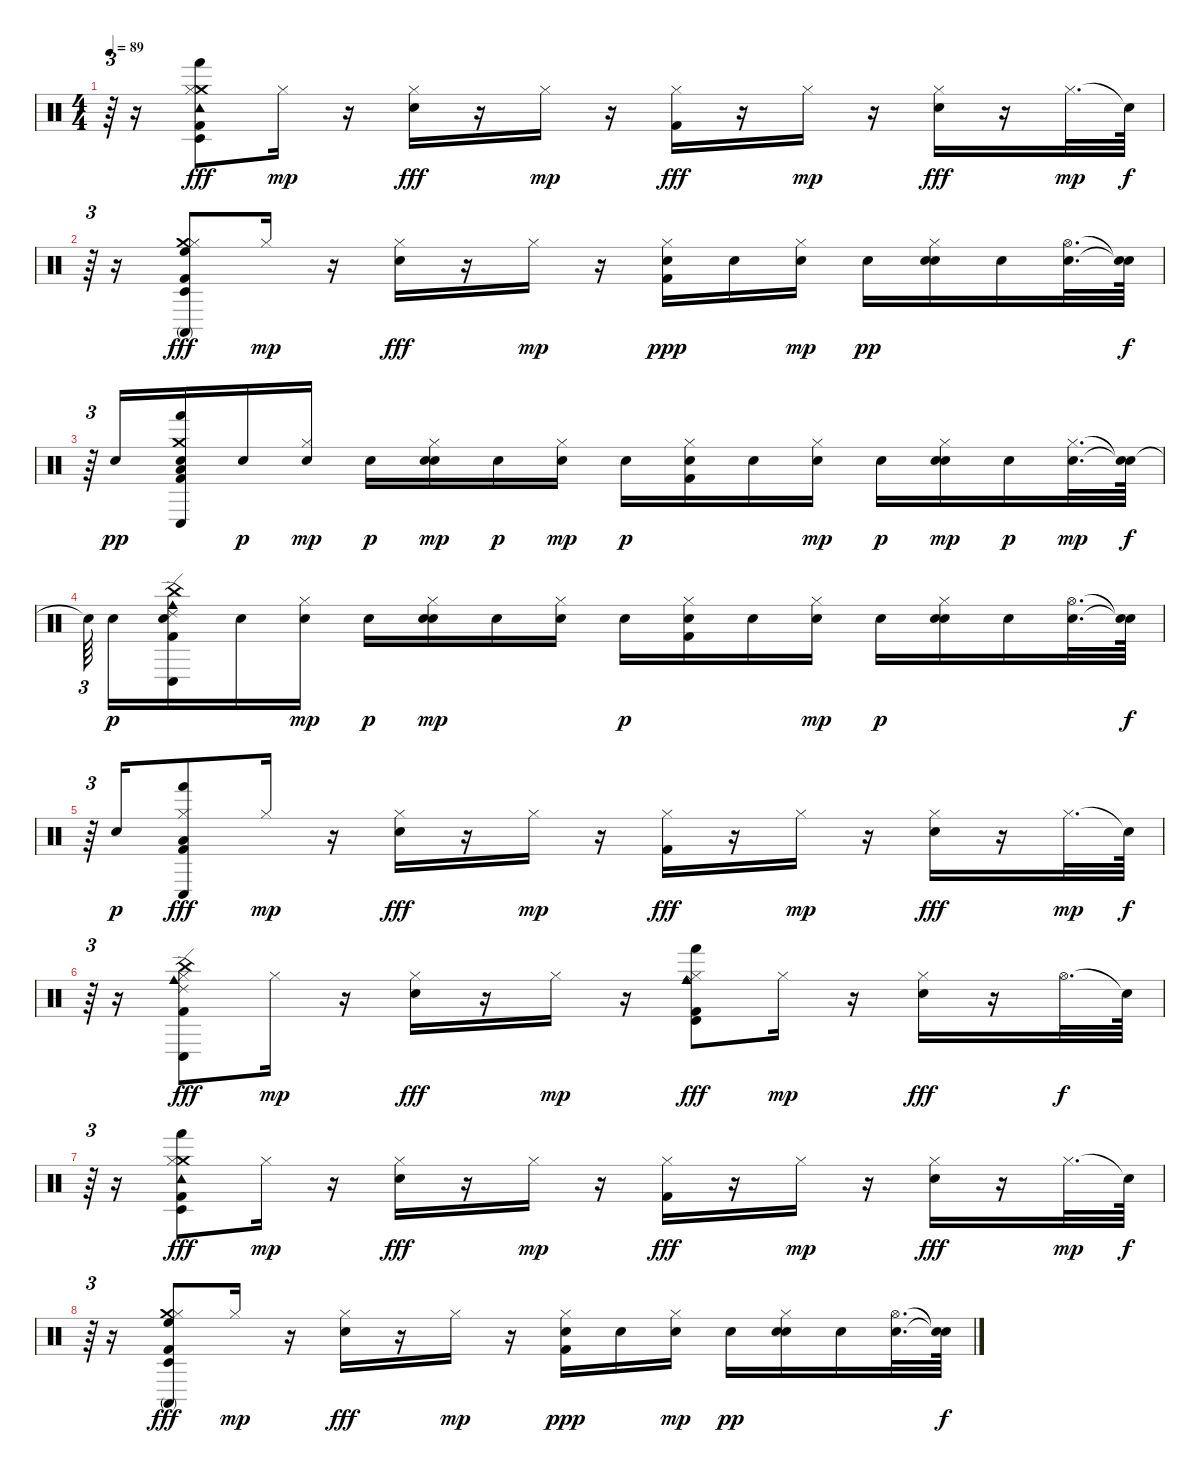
\track "" {instrument percussion}
\staff {score}
\articulation defaults
\ts (4 4)
\tempo 89
\clef neutral
\ks c
r.64{tu (3 2) dy f} r.16 ("Tambourine (hit)" "Crash medium (hit)" "Hand (hit)" "Timbale low (hit)" "Kick (hit) 2" "Hi-Hat (closed)").8{dy fff} "Hi-Hat (closed)".16{dy mp} r.16 ("Snare (hit) 2" "Hi-Hat (closed)").16{dy fff} r.16 "Hi-Hat (closed)".16{dy mp} r.16 ("Kick (hit) 2" "Hi-Hat (closed)").16{dy fff} r.16 "Hi-Hat (closed)".16{dy mp} r.16 ("Snare (hit) 2" "Hi-Hat (closed)").16{dy fff} r.16 "Hi-Hat (closed)".32{d dy mp} "Snare (hit)"{t}.64{dy f} |
r.64{tu (3 2)} r.16 ("High Floor Tom (hit)" "Crash medium (hit)" "Conga high (mute)" "Timbale low (hit)" "Kick (hit) 2" "Hi-Hat (closed)").8{dy fff} "Hi-Hat (closed)".16{dy mp} r.16 ("Snare (hit) 2" "Hi-Hat (closed)").16{dy fff} r.16 "Hi-Hat (closed)".16{dy mp} r.16 ("Kick (hit) 2" "Electric Snare (hit)" "Hi-Hat (closed)").16{dy ppp} "Electric Snare (hit)".16 ("Electric Snare (hit)" "Hi-Hat (closed)").16{dy mp} "Electric Snare (hit)".16{dy pp} ("Snare (hit) 2" "Electric Snare (hit)" "Hi-Hat (closed)").16 "Electric Snare (hit)".16 ("Electric Snare (hit)" "Hi-Hat (open)").32{d} ("Snare (hit)"{t} "Snare (hit)"{t}).64{dy f} |
r.64{tu (3 2)} "Electric Snare (hit)".16{dy pp} ("Low Tom (hit)" "Crash medium (hit)" "Hand (hit)" "Conga low (hit)" "Kick (hit) 2" "Electric Snare (hit)").16 "Electric Snare (hit)".16{dy p} ("Electric Snare (hit)" "Hi-Hat (closed)").16{dy mp} "Electric Snare (hit)".16{dy p} ("Snare (hit) 2" "Electric Snare (hit)" "Hi-Hat (closed)").16{dy mp} "Electric Snare (hit)".16{dy p} ("Electric Snare (hit)" "Hi-Hat (closed)").16{dy mp} "Electric Snare (hit)".16{dy p} ("Kick (hit) 2" "Electric Snare (hit)" "Hi-Hat (closed)").16 "Electric Snare (hit)".16 ("Electric Snare (hit)" "Hi-Hat (closed)").16{dy mp} "Electric Snare (hit)".16{dy p} ("Snare (hit) 2" "Electric Snare (hit)" "Hi-Hat (closed)").16{dy mp} "Electric Snare (hit)".16{dy p} ("Electric Snare (hit)" "Hi-Hat (closed)").32{d dy mp} ("Snare (hit)"{t} "Snare (hit)"{t}).64{dy f} |
"Snare (hit)"{t}.64{tu (3 2) beam splitsecondary} "Electric Snare (hit)".16{dy p} ("China (hit)" "Cowbell medium (hit)" "Ride (edge) 2" "Conga low (hit)" "Kick (hit) 2" "Electric Snare (hit)").16 "Electric Snare (hit)".16 ("Electric Snare (hit)" "Hi-Hat (closed)").16{dy mp} "Electric Snare (hit)".16{dy p} ("Snare (hit) 2" "Electric Snare (hit)" "Hi-Hat (closed)").16{dy mp} "Electric Snare (hit)".16 ("Electric Snare (hit)" "Hi-Hat (closed)").16 "Electric Snare (hit)".16{dy p} ("Kick (hit) 2" "Electric Snare (hit)" "Hi-Hat (closed)").16 "Electric Snare (hit)".16 ("Electric Snare (hit)" "Hi-Hat (closed)").16{dy mp} "Electric Snare (hit)".16{dy p} ("Snare (hit) 2" "Electric Snare (hit)" "Hi-Hat (closed)").16 "Electric Snare (hit)".16 ("Electric Snare (hit)" "Hi-Hat (open)").32{d} ("Snare (hit)"{t} "Snare (hit)"{t}).64{dy f} |
r.64{tu (3 2)} "Electric Snare (hit)".16{dy p} ("Low Tom (hit)" "Hand (hit)" "Conga low (hit)" "Kick (hit) 2" "Hi-Hat (closed)").8{dy fff} "Hi-Hat (closed)".16{dy mp} r.16 ("Snare (hit) 2" "Hi-Hat (closed)").16{dy fff} r.16 "Hi-Hat (closed)".16{dy mp} r.16 ("Kick (hit) 2" "Hi-Hat (closed)").16{dy fff} r.16 "Hi-Hat (closed)".16{dy mp} r.16 ("Snare (hit) 2" "Hi-Hat (closed)").16{dy fff} r.16 "Hi-Hat (closed)".32{d dy mp} "Snare (hit)"{t}.64{dy f} |
r.64{tu (3 2)} r.16 ("China (hit)" "Cowbell medium (hit)" "Ride (edge) 2" "Conga low (hit)" "Kick (hit) 2" "Hi-Hat (closed)").8{dy fff} "Hi-Hat (closed)".16{dy mp} r.16 ("Snare (hit) 2" "Hi-Hat (closed)").16{dy fff} r.16 "Hi-Hat (closed)".16{dy mp} r.16 ("Ride (bell)" "Cowbell medium (hit)" "Hand (hit)" "Timbale high (hit)" "Kick (hit) 2" "Hi-Hat (closed)").8{dy fff} "Hi-Hat (closed)".16{dy mp} r.16 ("Snare (hit) 2" "Hi-Hat (closed)").16{dy fff} r.16 "Hi-Hat (open)".32{d dy f} "Snare (hit)"{t}.64 |
r.64{tu (3 2)} r.16 ("Tambourine (hit)" "Crash medium (hit)" "Hand (hit)" "Timbale low (hit)" "Kick (hit) 2" "Hi-Hat (closed)").8{dy fff} "Hi-Hat (closed)".16{dy mp} r.16 ("Snare (hit) 2" "Hi-Hat (closed)").16{dy fff} r.16 "Hi-Hat (closed)".16{dy mp} r.16 ("Kick (hit) 2" "Hi-Hat (closed)").16{dy fff} r.16 "Hi-Hat (closed)".16{dy mp} r.16 ("Snare (hit) 2" "Hi-Hat (closed)").16{dy fff} r.16 "Hi-Hat (closed)".32{d dy mp} "Snare (hit)"{t}.64{dy f} |
r.64{tu (3 2)} r.16 ("High Floor Tom (hit)" "Crash medium (hit)" "Conga high (mute)" "Timbale low (hit)" "Kick (hit) 2" "Hi-Hat (closed)").8{dy fff} "Hi-Hat (closed)".16{dy mp} r.16 ("Snare (hit) 2" "Hi-Hat (closed)").16{dy fff} r.16 "Hi-Hat (closed)".16{dy mp} r.16 ("Kick (hit) 2" "Electric Snare (hit)" "Hi-Hat (closed)").16{dy ppp} "Electric Snare (hit)".16 ("Electric Snare (hit)" "Hi-Hat (closed)").16{dy mp} "Electric Snare (hit)".16{dy pp} ("Snare (hit) 2" "Electric Snare (hit)" "Hi-Hat (closed)").16 "Electric Snare (hit)".16 ("Electric Snare (hit)" "Hi-Hat (open)").32{d} ("Snare (hit)"{t} "Snare (hit)"{t}).64{dy f}
